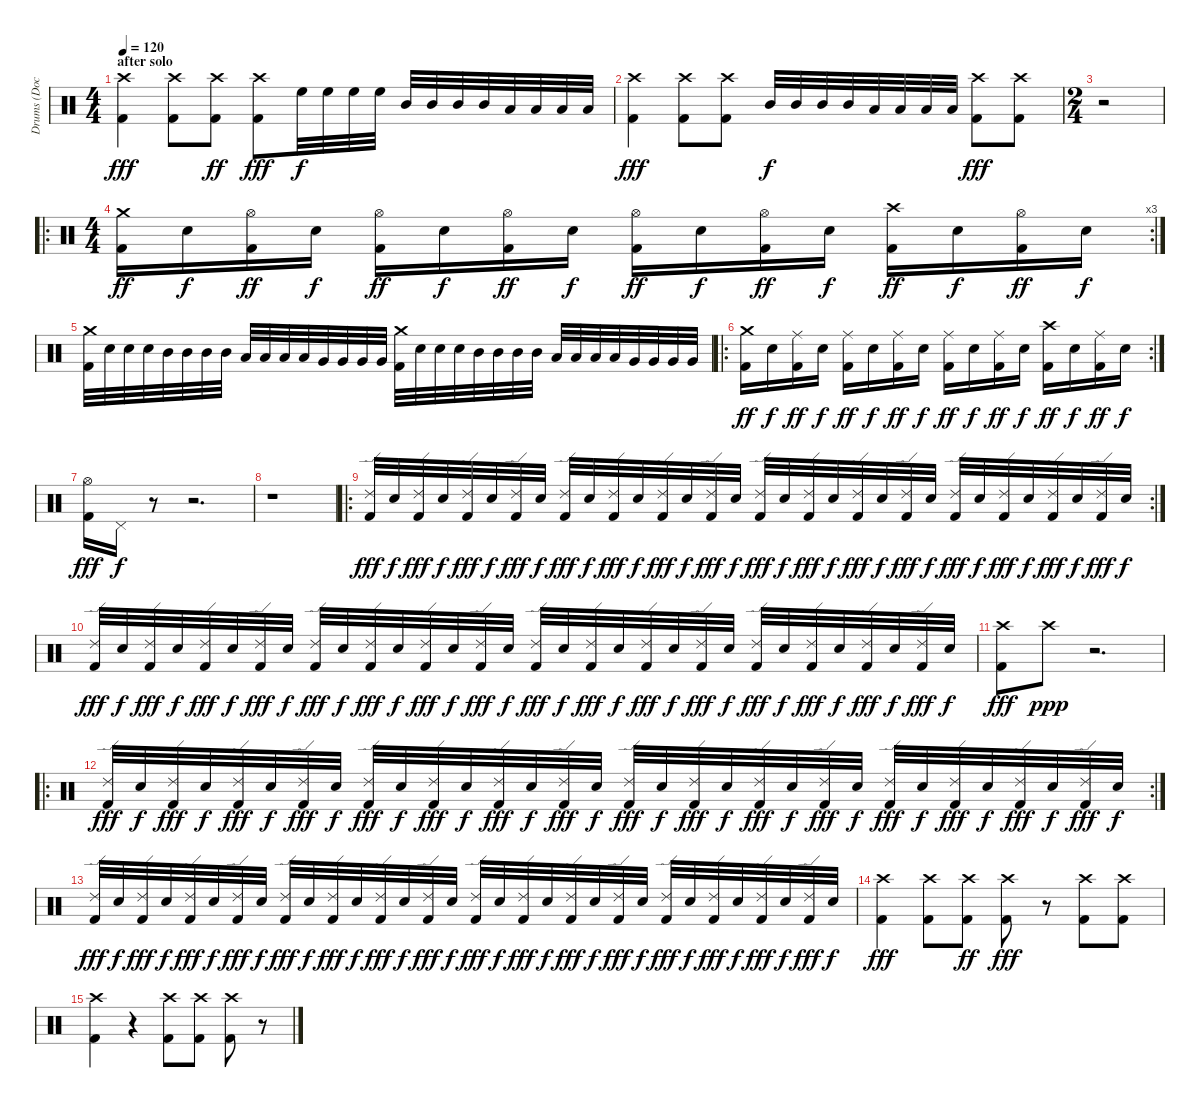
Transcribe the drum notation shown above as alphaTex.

\track ("Drums (Doc)" "Drums (Doc") {instrument percussion}
\staff {score}
\articulation defaults
\ts (4 4)
\section ("" "after solo")
\tempo 120
\clef neutral
\ks c
("Crash high (hit)" "Kick (hit) 2").4{dy fff} ("Crash high (hit)" "Kick (hit) 2").8 ("Crash high (hit)" "Kick (hit) 2").8{dy ff} ("Crash high (hit)" "Kick (hit) 2").8{dy fff} "High Floor Tom (hit)".32{dy f} "High Floor Tom (hit)".32 "High Floor Tom (hit)".32 "High Floor Tom (hit)".32 "Mid Tom (hit)".32 "Mid Tom (hit)".32 "Mid Tom (hit)".32 "Mid Tom (hit)".32 "Low Tom (hit)".32 "Low Tom (hit)".32 "Low Tom (hit)".32 "Low Tom (hit)".32 |
("Crash high (hit)" "Kick (hit) 2").4{dy fff} ("Crash high (hit)" "Kick (hit) 2").8 ("Crash high (hit)" "Kick (hit) 2").8 "Mid Tom (hit)".32{dy f} "Mid Tom (hit)".32 "Mid Tom (hit)".32 "Mid Tom (hit)".32 "Low Tom (hit)".32 "Low Tom (hit)".32 "Low Tom (hit)".32 "Low Tom (hit)".32 ("Crash high (hit)" "Kick (hit) 2").8{dy fff} ("Crash high (hit)" "Kick (hit) 2").8 |
\ts (2 4)
r.2 |
\ro
\rc 3
\ts (4 4)
("Crash medium (hit)" "Kick (hit) 2").16{dy ff} "Electric Snare (hit)".16{dy f} ("Hi-Hat (open)" "Kick (hit) 2").16{dy ff} "Electric Snare (hit)".16{dy f} ("Hi-Hat (open)" "Kick (hit) 2").16{dy ff} "Electric Snare (hit)".16{dy f} ("Hi-Hat (open)" "Kick (hit) 2").16{dy ff} "Electric Snare (hit)".16{dy f} ("Hi-Hat (open)" "Kick (hit) 2").16{dy ff} "Electric Snare (hit)".16{dy f} ("Hi-Hat (open)" "Kick (hit) 2").16{dy ff} "Electric Snare (hit)".16{dy f} ("Crash high (hit)" "Kick (hit) 2").16{dy ff} "Electric Snare (hit)".16{dy f} ("Hi-Hat (open)" "Kick (hit) 2").16{dy ff} "Electric Snare (hit)".16{dy f} |
("Crash medium (hit)" "Kick (hit) 2").32 "Electric Snare (hit)".32 "Electric Snare (hit)".32 "Electric Snare (hit)".32 "Mid Tom (hit)".32 "Mid Tom (hit)".32 "Mid Tom (hit)".32 "Mid Tom (hit)".32 "Low Tom (hit)".32 "Low Tom (hit)".32 "Low Tom (hit)".32 "Low Tom (hit)".32 "Very Low Tom (hit)".32 "Very Low Tom (hit)".32 "Very Low Tom (hit)".32 "Very Low Tom (hit)".32 ("Crash medium (hit)" "Kick (hit) 2").32 "Electric Snare (hit)".32 "Electric Snare (hit)".32 "Electric Snare (hit)".32 "Mid Tom (hit)".32 "Mid Tom (hit)".32 "Mid Tom (hit)".32 "Mid Tom (hit)".32 "Low Tom (hit)".32 "Low Tom (hit)".32 "Low Tom (hit)".32 "Low Tom (hit)".32 "Very Low Tom (hit)".32 "Very Low Tom (hit)".32 "Very Low Tom (hit)".32 "Very Low Tom (hit)".32 |
\ro
\rc 2
("Crash medium (hit)" "Kick (hit) 2").16{dy ff} "Electric Snare (hit)".16{dy f} ("Ride (middle)" "Kick (hit) 2").16{dy ff} "Electric Snare (hit)".16{dy f} ("Ride (middle)" "Kick (hit) 2").16{dy ff} "Electric Snare (hit)".16{dy f} ("Ride (middle)" "Kick (hit) 2").16{dy ff} "Electric Snare (hit)".16{dy f} ("Ride (middle)" "Kick (hit) 2").16{dy ff} "Electric Snare (hit)".16{dy f} ("Ride (middle)" "Kick (hit) 2").16{dy ff} "Electric Snare (hit)".16{dy f} ("Crash high (hit)" "Kick (hit) 2").16{dy ff} "Electric Snare (hit)".16{dy f} ("Ride (middle)" "Kick (hit) 2").16{dy ff} "Electric Snare (hit)".16{dy f} |
("Hi-Hat (open)" "Kick (hit) 2").16{dy fff} "Pedal Hi-Hat (hit)".16{dy f} r.8 r.2{d} |
r.1 |
\ro
\rc 2
("Ride (edge) 2" "Kick (hit) 2").32{dy fff} "Electric Snare (hit)".32{dy f} ("Ride (edge) 2" "Kick (hit) 2").32{dy fff} "Electric Snare (hit)".32{dy f} ("Ride (edge) 2" "Kick (hit) 2").32{dy fff} "Electric Snare (hit)".32{dy f} ("Ride (edge) 2" "Kick (hit) 2").32{dy fff} "Electric Snare (hit)".32{dy f} ("Ride (edge) 2" "Kick (hit) 2").32{dy fff} "Electric Snare (hit)".32{dy f} ("Ride (edge) 2" "Kick (hit) 2").32{dy fff} "Electric Snare (hit)".32{dy f} ("Ride (edge) 2" "Kick (hit) 2").32{dy fff} "Electric Snare (hit)".32{dy f} ("Ride (edge) 2" "Kick (hit) 2").32{dy fff} "Electric Snare (hit)".32{dy f} ("Ride (edge) 2" "Kick (hit) 2").32{dy fff} "Electric Snare (hit)".32{dy f} ("Ride (edge) 2" "Kick (hit) 2").32{dy fff} "Electric Snare (hit)".32{dy f} ("Ride (edge) 2" "Kick (hit) 2").32{dy fff} "Electric Snare (hit)".32{dy f} ("Ride (edge) 2" "Kick (hit) 2").32{dy fff} "Electric Snare (hit)".32{dy f} ("Ride (edge) 2" "Kick (hit) 2").32{dy fff} "Electric Snare (hit)".32{dy f} ("Ride (edge) 2" "Kick (hit) 2").32{dy fff} "Electric Snare (hit)".32{dy f} ("Ride (edge) 2" "Kick (hit) 2").32{dy fff} "Electric Snare (hit)".32{dy f} ("Ride (edge) 2" "Kick (hit) 2").32{dy fff} "Electric Snare (hit)".32{dy f} |
("Ride (edge) 2" "Kick (hit) 2").32{dy fff} "Electric Snare (hit)".32{dy f} ("Ride (edge) 2" "Kick (hit) 2").32{dy fff} "Electric Snare (hit)".32{dy f} ("Ride (edge) 2" "Kick (hit) 2").32{dy fff} "Electric Snare (hit)".32{dy f} ("Ride (edge) 2" "Kick (hit) 2").32{dy fff} "Electric Snare (hit)".32{dy f} ("Ride (edge) 2" "Kick (hit) 2").32{dy fff} "Electric Snare (hit)".32{dy f} ("Ride (edge) 2" "Kick (hit) 2").32{dy fff} "Electric Snare (hit)".32{dy f} ("Ride (edge) 2" "Kick (hit) 2").32{dy fff} "Electric Snare (hit)".32{dy f} ("Ride (edge) 2" "Kick (hit) 2").32{dy fff} "Electric Snare (hit)".32{dy f} ("Ride (edge) 2" "Kick (hit) 2").32{dy fff} "Electric Snare (hit)".32{dy f} ("Ride (edge) 2" "Kick (hit) 2").32{dy fff} "Electric Snare (hit)".32{dy f} ("Ride (edge) 2" "Kick (hit) 2").32{dy fff} "Electric Snare (hit)".32{dy f} ("Ride (edge) 2" "Kick (hit) 2").32{dy fff} "Electric Snare (hit)".32{dy f} ("Ride (edge) 2" "Kick (hit) 2").32{dy fff} "Electric Snare (hit)".32{dy f} ("Ride (edge) 2" "Kick (hit) 2").32{dy fff} "Electric Snare (hit)".32{dy f} ("Ride (edge) 2" "Kick (hit) 2").32{dy fff} "Electric Snare (hit)".32{dy f} ("Ride (edge) 2" "Kick (hit) 2").32{dy fff} "Electric Snare (hit)".32{dy f} |
("Crash high (hit)" "Kick (hit) 2").8{dy fff} "Crash high (hit)".8{dy ppp} r.2{d} |
\ro
\rc 2
("Ride (edge) 2" "Kick (hit) 2").32{dy fff} "Electric Snare (hit)".32{dy f} ("Ride (edge) 2" "Kick (hit) 2").32{dy fff} "Electric Snare (hit)".32{dy f} ("Ride (edge) 2" "Kick (hit) 2").32{dy fff} "Electric Snare (hit)".32{dy f} ("Ride (edge) 2" "Kick (hit) 2").32{dy fff} "Electric Snare (hit)".32{dy f} ("Ride (edge) 2" "Kick (hit) 2").32{dy fff} "Electric Snare (hit)".32{dy f} ("Ride (edge) 2" "Kick (hit) 2").32{dy fff} "Electric Snare (hit)".32{dy f} ("Ride (edge) 2" "Kick (hit) 2").32{dy fff} "Electric Snare (hit)".32{dy f} ("Ride (edge) 2" "Kick (hit) 2").32{dy fff} "Electric Snare (hit)".32{dy f} ("Ride (edge) 2" "Kick (hit) 2").32{dy fff} "Electric Snare (hit)".32{dy f} ("Ride (edge) 2" "Kick (hit) 2").32{dy fff} "Electric Snare (hit)".32{dy f} ("Ride (edge) 2" "Kick (hit) 2").32{dy fff} "Electric Snare (hit)".32{dy f} ("Ride (edge) 2" "Kick (hit) 2").32{dy fff} "Electric Snare (hit)".32{dy f} ("Ride (edge) 2" "Kick (hit) 2").32{dy fff} "Electric Snare (hit)".32{dy f} ("Ride (edge) 2" "Kick (hit) 2").32{dy fff} "Electric Snare (hit)".32{dy f} ("Ride (edge) 2" "Kick (hit) 2").32{dy fff} "Electric Snare (hit)".32{dy f} ("Ride (edge) 2" "Kick (hit) 2").32{dy fff} "Electric Snare (hit)".32{dy f} |
("Ride (edge) 2" "Kick (hit) 2").32{dy fff} "Electric Snare (hit)".32{dy f} ("Ride (edge) 2" "Kick (hit) 2").32{dy fff} "Electric Snare (hit)".32{dy f} ("Ride (edge) 2" "Kick (hit) 2").32{dy fff} "Electric Snare (hit)".32{dy f} ("Ride (edge) 2" "Kick (hit) 2").32{dy fff} "Electric Snare (hit)".32{dy f} ("Ride (edge) 2" "Kick (hit) 2").32{dy fff} "Electric Snare (hit)".32{dy f} ("Ride (edge) 2" "Kick (hit) 2").32{dy fff} "Electric Snare (hit)".32{dy f} ("Ride (edge) 2" "Kick (hit) 2").32{dy fff} "Electric Snare (hit)".32{dy f} ("Ride (edge) 2" "Kick (hit) 2").32{dy fff} "Electric Snare (hit)".32{dy f} ("Ride (edge) 2" "Kick (hit) 2").32{dy fff} "Electric Snare (hit)".32{dy f} ("Ride (edge) 2" "Kick (hit) 2").32{dy fff} "Electric Snare (hit)".32{dy f} ("Ride (edge) 2" "Kick (hit) 2").32{dy fff} "Electric Snare (hit)".32{dy f} ("Ride (edge) 2" "Kick (hit) 2").32{dy fff} "Electric Snare (hit)".32{dy f} ("Ride (edge) 2" "Kick (hit) 2").32{dy fff} "Electric Snare (hit)".32{dy f} ("Ride (edge) 2" "Kick (hit) 2").32{dy fff} "Electric Snare (hit)".32{dy f} ("Ride (edge) 2" "Kick (hit) 2").32{dy fff} "Electric Snare (hit)".32{dy f} ("Ride (edge) 2" "Kick (hit) 2").32{dy fff} "Electric Snare (hit)".32{dy f} |
("Crash high (hit)" "Kick (hit) 2").4{dy fff} ("Crash high (hit)" "Kick (hit) 2").8 ("Crash high (hit)" "Kick (hit) 2").8{dy ff} ("Crash high (hit)" "Kick (hit) 2").8{dy fff} r.8 ("Crash high (hit)" "Kick (hit) 2").8 ("Crash high (hit)" "Kick (hit) 2").8 |
("Crash high (hit)" "Kick (hit) 2").4 r.4 ("Crash high (hit)" "Kick (hit) 2").8 ("Crash high (hit)" "Kick (hit) 2").8 ("Crash high (hit)" "Kick (hit) 2").8 r.8
